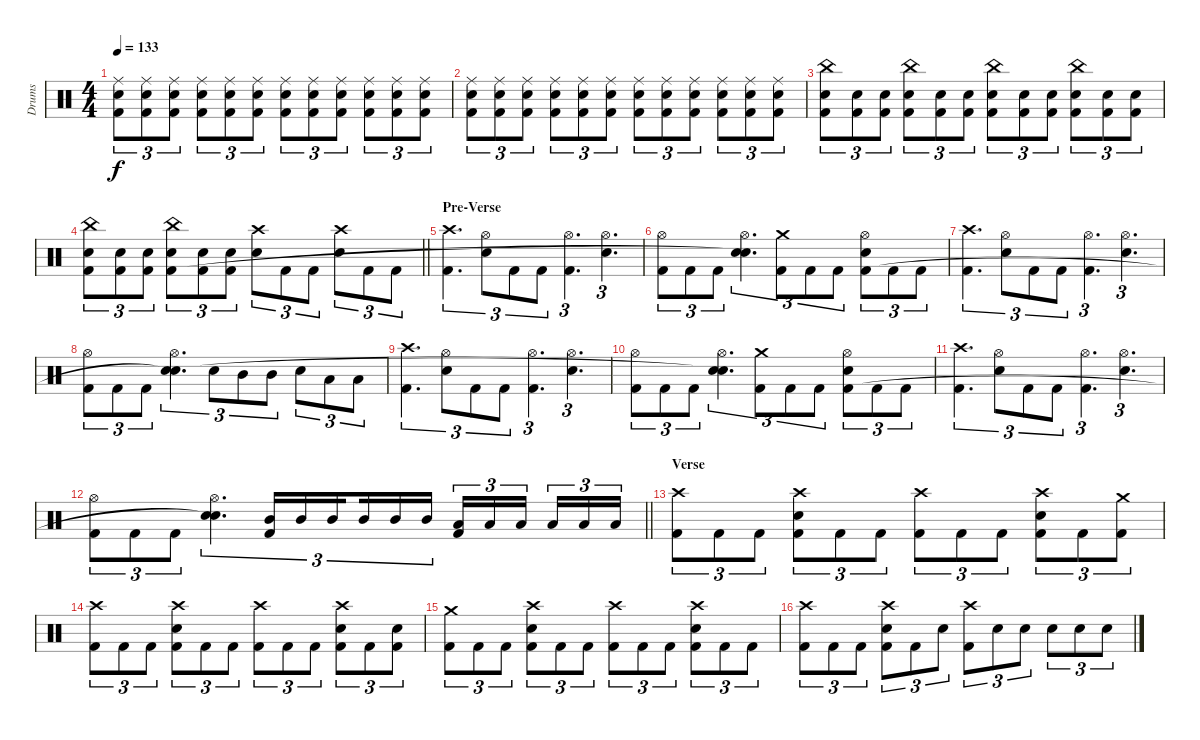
\track ("Drums" "Drums") {instrument percussion}
\staff {score}
\articulation defaults
\ts (4 4)
\tempo 133
\clef neutral
\ks c
("Ride (middle)" "Snare (hit) 2" "Kick (hit) 2").8{tu (3 2) dy f} ("Ride (middle)" "Snare (hit) 2" "Kick (hit) 2").8{tu (3 2)} ("Ride (middle)" "Snare (hit) 2" "Kick (hit) 2").8{tu (3 2)} ("Ride (middle)" "Snare (hit) 2" "Kick (hit) 2").8{tu (3 2)} ("Ride (middle)" "Snare (hit) 2" "Kick (hit) 2").8{tu (3 2)} ("Ride (middle)" "Snare (hit) 2" "Kick (hit) 2").8{tu (3 2)} ("Ride (middle)" "Snare (hit) 2" "Kick (hit) 2").8{tu (3 2)} ("Ride (middle)" "Snare (hit) 2" "Kick (hit) 2").8{tu (3 2)} ("Ride (middle)" "Snare (hit) 2" "Kick (hit) 2").8{tu (3 2)} ("Ride (middle)" "Snare (hit) 2" "Kick (hit) 2").8{tu (3 2)} ("Ride (middle)" "Snare (hit) 2" "Kick (hit) 2").8{tu (3 2)} ("Ride (middle)" "Snare (hit) 2" "Kick (hit) 2").8{tu (3 2)} |
("Ride (middle)" "Snare (hit) 2" "Kick (hit) 2").8{tu (3 2)} ("Ride (middle)" "Snare (hit) 2" "Kick (hit) 2").8{tu (3 2)} ("Ride (middle)" "Snare (hit) 2" "Kick (hit) 2").8{tu (3 2)} ("Ride (middle)" "Snare (hit) 2" "Kick (hit) 2").8{tu (3 2)} ("Ride (middle)" "Snare (hit) 2" "Kick (hit) 2").8{tu (3 2)} ("Ride (middle)" "Snare (hit) 2" "Kick (hit) 2").8{tu (3 2)} ("Ride (middle)" "Snare (hit) 2" "Kick (hit) 2").8{tu (3 2)} ("Ride (middle)" "Snare (hit) 2" "Kick (hit) 2").8{tu (3 2)} ("Ride (middle)" "Snare (hit) 2" "Kick (hit) 2").8{tu (3 2)} ("Ride (middle)" "Snare (hit) 2" "Kick (hit) 2").8{tu (3 2)} ("Ride (middle)" "Snare (hit) 2" "Kick (hit) 2").8{tu (3 2)} ("Ride (middle)" "Snare (hit) 2" "Kick (hit) 2").8{tu (3 2)} |
("China (hit)" "Snare (hit) 2" "Kick (hit) 2").8{tu (3 2)} ("Snare (hit) 2" "Kick (hit) 2").8{tu (3 2)} ("Snare (hit) 2" "Kick (hit) 2").8{tu (3 2)} ("China (hit)" "Snare (hit) 2" "Kick (hit) 2").8{tu (3 2)} ("Snare (hit) 2" "Kick (hit) 2").8{tu (3 2)} ("Snare (hit) 2" "Kick (hit) 2").8{tu (3 2)} ("China (hit)" "Snare (hit) 2" "Kick (hit) 2").8{tu (3 2)} ("Snare (hit) 2" "Kick (hit) 2").8{tu (3 2)} ("Snare (hit) 2" "Kick (hit) 2").8{tu (3 2)} ("China (hit)" "Snare (hit) 2" "Kick (hit) 2").8{tu (3 2)} ("Snare (hit) 2" "Kick (hit) 2").8{tu (3 2)} ("Snare (hit) 2" "Kick (hit) 2").8{tu (3 2)} |
\barLineRight lightlight
("China (hit)" "Snare (hit) 2" "Kick (hit) 2").8{tu (3 2)} ("Snare (hit) 2" "Kick (hit) 2").8{tu (3 2)} ("Snare (hit) 2" "Kick (hit) 2").8{tu (3 2)} ("China (hit)" "Snare (hit) 2" "Kick (hit) 2").8{tu (3 2)} ("Snare (hit) 2" "Kick (hit) 2").8{tu (3 2)} ("Snare (hit) 2" "Kick (hit) 2").8{tu (3 2)} ("Crash high (hit)" "Snare (hit) 2").8{tu (3 2)} "Kick (hit) 2".8{tu (3 2)} "Kick (hit) 2".8{tu (3 2)} ("Crash high (hit)" "Snare (hit) 2").8{tu (3 2)} "Kick (hit) 2".8{tu (3 2)} "Kick (hit) 2".8{tu (3 2)} |
\section ("" "Pre-Verse")
("Crash high (hit)" "Kick (hit) 2").4{d tu (3 2)} ("Hi-Hat (open)" "Snare (hit) 2").8{tu (3 2)} "Kick (hit) 2".8{tu (3 2)} "Kick (hit) 2".8{tu (3 2)} ("Hi-Hat (open)" "Kick (hit) 2").4{d tu (3 2)} ("Hi-Hat (open)" "Snare (hit) 2").4{d tu (3 2)} |
("Hi-Hat (open)" "Kick (hit) 2").8{tu (3 2)} "Kick (hit) 2".8{tu (3 2)} "Kick (hit) 2".8{tu (3 2)} ("Hi-Hat (open)" "Snare (hit) 2" "Snare (hit)"{t}).4{d tu (3 2)} ("Crash medium (hit)" "Kick (hit) 2").8{tu (3 2)} "Kick (hit) 2".8{tu (3 2)} "Kick (hit) 2".8{tu (3 2)} ("Hi-Hat (open)" "Snare (hit) 2" "Kick (hit) 2").8{tu (3 2)} "Kick (hit) 2".8{tu (3 2)} "Kick (hit) 2".8{tu (3 2)} |
("Crash high (hit)" "Kick (hit) 2").4{d tu (3 2)} ("Hi-Hat (open)" "Snare (hit) 2").8{tu (3 2)} "Kick (hit) 2".8{tu (3 2)} "Kick (hit) 2".8{tu (3 2)} ("Hi-Hat (open)" "Kick (hit) 2").4{d tu (3 2)} ("Hi-Hat (open)" "Snare (hit) 2").4{d tu (3 2)} |
("Hi-Hat (open)" "Kick (hit) 2").8{tu (3 2)} "Kick (hit) 2".8{tu (3 2)} "Kick (hit) 2".8{tu (3 2)} ("Hi-Hat (open)" "Snare (hit) 2" "Snare (hit)"{t}).4{d tu (3 2)} "Snare (hit) 2".8{tu (3 2)} "Mid Tom (hit)".8{tu (3 2)} "Mid Tom (hit)".8{tu (3 2)} "Snare (hit) 2".8{tu (3 2)} "Low Tom (hit)".8{tu (3 2)} "Low Tom (hit)".8{tu (3 2)} |
("Crash high (hit)" "Kick (hit) 2").4{d tu (3 2)} ("Hi-Hat (open)" "Snare (hit) 2").8{tu (3 2)} "Kick (hit) 2".8{tu (3 2)} "Kick (hit) 2".8{tu (3 2)} ("Hi-Hat (open)" "Kick (hit) 2").4{d tu (3 2)} ("Hi-Hat (open)" "Snare (hit) 2").4{d tu (3 2)} |
("Hi-Hat (open)" "Kick (hit) 2").8{tu (3 2)} "Kick (hit) 2".8{tu (3 2)} "Kick (hit) 2".8{tu (3 2)} ("Hi-Hat (open)" "Snare (hit) 2" "Snare (hit)"{t}).4{d tu (3 2)} ("Crash medium (hit)" "Kick (hit) 2").8{tu (3 2)} "Kick (hit) 2".8{tu (3 2)} "Kick (hit) 2".8{tu (3 2)} ("Hi-Hat (open)" "Snare (hit) 2" "Kick (hit) 2").8{tu (3 2)} "Kick (hit) 2".8{tu (3 2)} "Kick (hit) 2".8{tu (3 2)} |
("Crash high (hit)" "Kick (hit) 2").4{d tu (3 2)} ("Hi-Hat (open)" "Snare (hit) 2").8{tu (3 2)} "Kick (hit) 2".8{tu (3 2)} "Kick (hit) 2".8{tu (3 2)} ("Hi-Hat (open)" "Kick (hit) 2").4{d tu (3 2)} ("Hi-Hat (open)" "Snare (hit) 2").4{d tu (3 2)} |
\barLineRight lightlight
("Hi-Hat (open)" "Kick (hit) 2").8{tu (3 2)} "Kick (hit) 2".8{tu (3 2)} "Kick (hit) 2".8{tu (3 2)} ("Hi-Hat (open)" "Snare (hit) 2" "Snare (hit)"{t}).4{d tu (3 2)} ("Mid Tom (hit)" "Kick (hit) 2").16{tu (3 2)} "Mid Tom (hit)".16{tu (3 2)} "Mid Tom (hit)".16{tu (3 2) beam splitsecondary} "Mid Tom (hit)".16{tu (3 2)} "Mid Tom (hit)".16{tu (3 2)} "Mid Tom (hit)".16{tu (3 2)} ("Low Tom (hit)" "Kick (hit) 2").16{tu (3 2)} "Low Tom (hit)".16{tu (3 2)} "Low Tom (hit)".16{tu (3 2) beam splitsecondary} "Low Tom (hit)".16{tu (3 2)} "Low Tom (hit)".16{tu (3 2)} "Low Tom (hit)".16{tu (3 2)} |
\section ("" "Verse")
("Crash high (hit)" "Kick (hit) 2").8{tu (3 2)} "Kick (hit) 2".8{tu (3 2)} "Kick (hit) 2".8{tu (3 2)} ("Crash high (hit)" "Snare (hit) 2" "Kick (hit) 2").8{tu (3 2)} "Kick (hit) 2".8{tu (3 2)} "Kick (hit) 2".8{tu (3 2)} ("Crash high (hit)" "Kick (hit) 2").8{tu (3 2)} "Kick (hit) 2".8{tu (3 2)} "Kick (hit) 2".8{tu (3 2)} ("Crash high (hit)" "Snare (hit) 2" "Kick (hit) 2").8{tu (3 2)} "Kick (hit) 2".8{tu (3 2)} ("Crash medium (hit)" "Kick (hit) 2").8{tu (3 2)} |
("Crash high (hit)" "Kick (hit) 2").8{tu (3 2)} "Kick (hit) 2".8{tu (3 2)} "Kick (hit) 2".8{tu (3 2)} ("Crash high (hit)" "Snare (hit) 2" "Kick (hit) 2").8{tu (3 2)} "Kick (hit) 2".8{tu (3 2)} "Kick (hit) 2".8{tu (3 2)} ("Crash high (hit)" "Kick (hit) 2").8{tu (3 2)} "Kick (hit) 2".8{tu (3 2)} "Kick (hit) 2".8{tu (3 2)} ("Crash high (hit)" "Snare (hit) 2" "Kick (hit) 2").8{tu (3 2)} "Kick (hit) 2".8{tu (3 2)} ("Snare (hit) 2" "Kick (hit) 2").8{tu (3 2)} |
("Crash medium (hit)" "Kick (hit) 2").8{tu (3 2)} "Kick (hit) 2".8{tu (3 2)} "Kick (hit) 2".8{tu (3 2)} ("Crash high (hit)" "Snare (hit) 2" "Kick (hit) 2").8{tu (3 2)} "Kick (hit) 2".8{tu (3 2)} "Kick (hit) 2".8{tu (3 2)} ("Crash high (hit)" "Kick (hit) 2").8{tu (3 2)} "Kick (hit) 2".8{tu (3 2)} "Kick (hit) 2".8{tu (3 2)} ("Crash high (hit)" "Snare (hit) 2" "Kick (hit) 2").8{tu (3 2)} "Kick (hit) 2".8{tu (3 2)} "Kick (hit) 2".8{tu (3 2)} |
("Crash high (hit)" "Kick (hit) 2").8{tu (3 2)} "Kick (hit) 2".8{tu (3 2)} "Kick (hit) 2".8{tu (3 2)} ("Crash high (hit)" "Snare (hit) 2" "Kick (hit) 2").8{tu (3 2)} "Kick (hit) 2".8{tu (3 2)} "Snare (hit) 2".8{tu (3 2)} ("Crash high (hit)" "Kick (hit) 2").8{tu (3 2)} "Snare (hit) 2".8{tu (3 2)} "Snare (hit) 2".8{tu (3 2)} "Snare (hit) 2".8{tu (3 2)} "Snare (hit) 2".8{tu (3 2)} "Snare (hit) 2".8{tu (3 2)}
